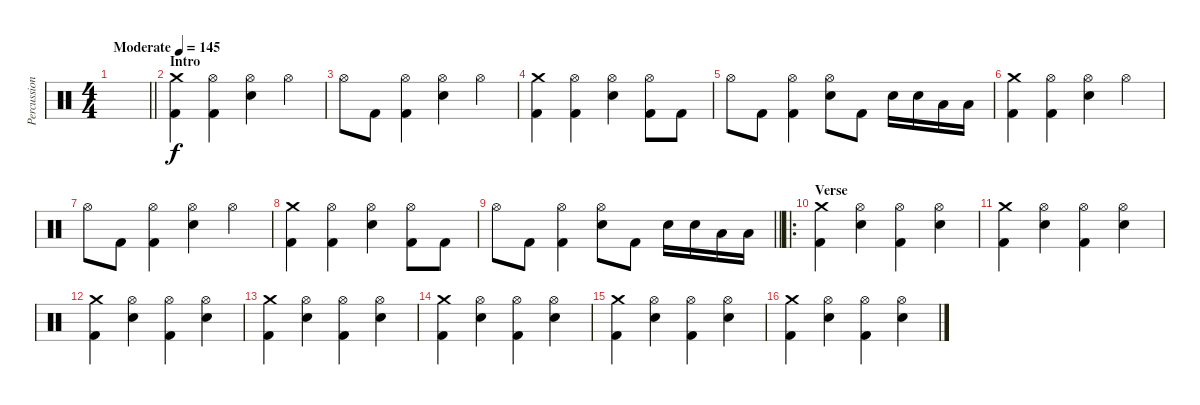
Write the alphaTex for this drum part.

\track ("Percussion" "Percussion") {instrument percussion}
\staff {score}
\articulation defaults
\ts (4 4)
\tempo (145 "Moderate")
\clef neutral
\barLineRight lightlight
\ks c
|
\section ("" "Intro")
("Crash medium (hit)" "Kick (hit) 2").4 ("Hi-Hat (open)" "Kick (hit) 2").4 ("Hi-Hat (open)" "Snare (hit) 2").4 "Hi-Hat (open)".4 |
"Hi-Hat (open)".8 "Kick (hit) 2".8 ("Hi-Hat (open)" "Kick (hit) 2").4 ("Hi-Hat (open)" "Snare (hit) 2").4 "Hi-Hat (open)".4 |
("Crash medium (hit)" "Kick (hit) 2").4 ("Hi-Hat (open)" "Kick (hit) 2").4 ("Hi-Hat (open)" "Snare (hit) 2").4 ("Hi-Hat (open)" "Kick (hit) 2").8 "Kick (hit) 2".8 |
"Hi-Hat (open)".8 "Kick (hit) 2".8 ("Hi-Hat (open)" "Kick (hit) 2").4 ("Hi-Hat (open)" "Snare (hit) 2").8 "Kick (hit) 2".8 "Snare (hit) 2".16 "Snare (hit) 2".16 "Low Floor Tom (hit)".16 "Low Floor Tom (hit)".16 |
("Crash medium (hit)" "Kick (hit) 2").4 ("Hi-Hat (open)" "Kick (hit) 2").4 ("Hi-Hat (open)" "Snare (hit) 2").4 "Hi-Hat (open)".4 |
"Hi-Hat (open)".8 "Kick (hit) 2".8 ("Hi-Hat (open)" "Kick (hit) 2").4 ("Hi-Hat (open)" "Snare (hit) 2").4 "Hi-Hat (open)".4 |
("Crash medium (hit)" "Kick (hit) 2").4 ("Hi-Hat (open)" "Kick (hit) 2").4 ("Hi-Hat (open)" "Snare (hit) 2").4 ("Hi-Hat (open)" "Kick (hit) 2").8 "Kick (hit) 2".8 |
\barLineRight lightlight "Hi-Hat (open)".8 "Kick (hit) 2".8
("Hi-Hat (open)" "Kick (hit) 2").4 ("Hi-Hat (open)" "Snare (hit) 2").8 "Kick (hit) 2".8 "Snare (hit) 2".16 "Snare (hit) 2".16 "Low Floor Tom (hit)".16 "Low Floor Tom (hit)".16 |
\ro
\section ("" "Verse")
("Crash medium (hit)" "Kick (hit) 2").4 ("Hi-Hat (open)" "Snare (hit) 2").4 ("Hi-Hat (open)" "Kick (hit) 2").4 ("Hi-Hat (open)" "Snare (hit) 2").4 |
("Crash medium (hit)" "Kick (hit) 2").4 ("Hi-Hat (open)" "Snare (hit) 2").4 ("Hi-Hat (open)" "Kick (hit) 2").4 ("Hi-Hat (open)" "Snare (hit) 2").4 |
("Crash medium (hit)" "Kick (hit) 2").4 ("Hi-Hat (open)" "Snare (hit) 2").4 ("Hi-Hat (open)" "Kick (hit) 2").4 ("Hi-Hat (open)" "Snare (hit) 2").4 |
("Crash medium (hit)" "Kick (hit) 2").4 ("Hi-Hat (open)" "Snare (hit) 2").4 ("Hi-Hat (open)" "Kick (hit) 2").4 ("Hi-Hat (open)" "Snare (hit) 2").4 |
("Crash medium (hit)" "Kick (hit) 2").4 ("Hi-Hat (open)" "Snare (hit) 2").4 ("Hi-Hat (open)" "Kick (hit) 2").4 ("Hi-Hat (open)" "Snare (hit) 2").4 |
("Crash medium (hit)" "Kick (hit) 2").4 ("Hi-Hat (open)" "Snare (hit) 2").4 ("Hi-Hat (open)" "Kick (hit) 2").4 ("Hi-Hat (open)" "Snare (hit) 2").4 |
("Crash medium (hit)" "Kick (hit) 2").4 ("Hi-Hat (open)" "Snare (hit) 2").4 ("Hi-Hat (open)" "Kick (hit) 2").4 ("Hi-Hat (open)" "Snare (hit) 2").4
